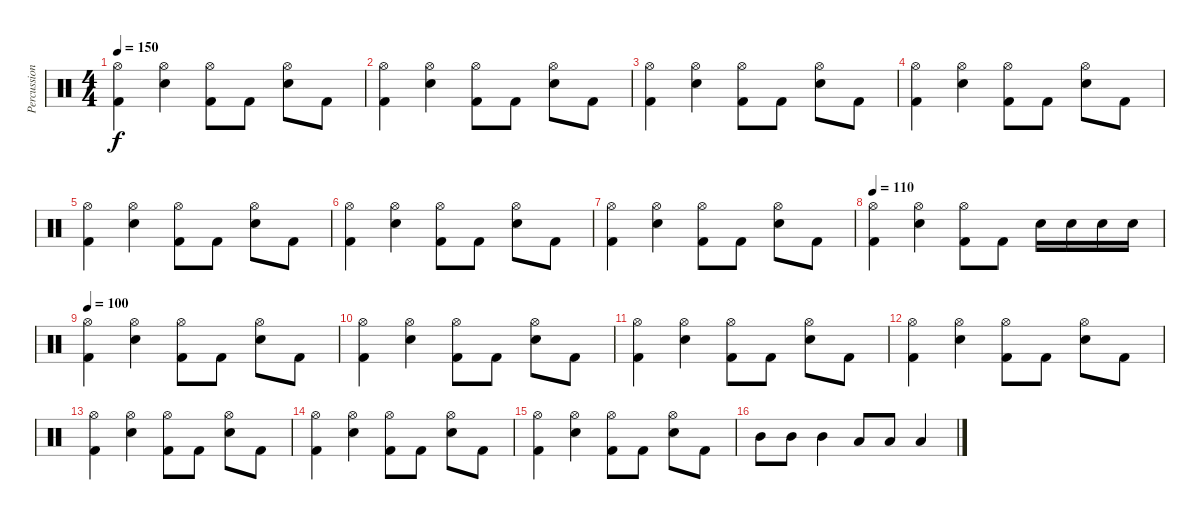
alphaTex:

\track ("Percussion" "Percussion") {instrument percussion}
\staff {score}
\articulation defaults
\ts (4 4)
\tempo 150
\clef neutral
\ks c
("Kick (hit) 2" "Hi-Hat (open)").4{dy f} ("Snare (hit) 2" "Hi-Hat (open)").4 ("Kick (hit) 2" "Hi-Hat (open)").8 "Kick (hit) 2".8 ("Snare (hit) 2" "Hi-Hat (open)").8 "Kick (hit) 2".8 |
("Kick (hit) 2" "Hi-Hat (open)").4 ("Snare (hit) 2" "Hi-Hat (open)").4 ("Kick (hit) 2" "Hi-Hat (open)").8 "Kick (hit) 2".8 ("Snare (hit) 2" "Hi-Hat (open)").8 "Kick (hit) 2".8 |
("Kick (hit) 2" "Hi-Hat (open)").4 ("Snare (hit) 2" "Hi-Hat (open)").4 ("Kick (hit) 2" "Hi-Hat (open)").8 "Kick (hit) 2".8 ("Snare (hit) 2" "Hi-Hat (open)").8 "Kick (hit) 2".8 |
("Kick (hit) 2" "Hi-Hat (open)").4 ("Snare (hit) 2" "Hi-Hat (open)").4 ("Kick (hit) 2" "Hi-Hat (open)").8 "Kick (hit) 2".8 ("Snare (hit) 2" "Hi-Hat (open)").8 "Kick (hit) 2".8 |
("Kick (hit) 2" "Hi-Hat (open)").4 ("Snare (hit) 2" "Hi-Hat (open)").4 ("Kick (hit) 2" "Hi-Hat (open)").8 "Kick (hit) 2".8 ("Snare (hit) 2" "Hi-Hat (open)").8 "Kick (hit) 2".8 |
("Kick (hit) 2" "Hi-Hat (open)").4 ("Snare (hit) 2" "Hi-Hat (open)").4 ("Kick (hit) 2" "Hi-Hat (open)").8 "Kick (hit) 2".8 ("Snare (hit) 2" "Hi-Hat (open)").8 "Kick (hit) 2".8 |
("Kick (hit) 2" "Hi-Hat (open)").4 ("Snare (hit) 2" "Hi-Hat (open)").4 ("Kick (hit) 2" "Hi-Hat (open)").8 "Kick (hit) 2".8 ("Snare (hit) 2" "Hi-Hat (open)").8 "Kick (hit) 2".8 |
\tempo 110
("Kick (hit) 2" "Hi-Hat (open)").4 ("Snare (hit) 2" "Hi-Hat (open)").4 ("Kick (hit) 2" "Hi-Hat (open)").8 "Kick (hit) 2".8 "Snare (hit) 2".16 "Snare (hit) 2".16 "Snare (hit) 2".16 "Snare (hit) 2".16 |
\tempo 100
("Kick (hit) 2" "Hi-Hat (open)").4 ("Snare (hit) 2" "Hi-Hat (open)").4 ("Kick (hit) 2" "Hi-Hat (open)").8 "Kick (hit) 2".8 ("Snare (hit) 2" "Hi-Hat (open)").8 "Kick (hit) 2".8 |
("Kick (hit) 2" "Hi-Hat (open)").4 ("Snare (hit) 2" "Hi-Hat (open)").4 ("Kick (hit) 2" "Hi-Hat (open)").8 "Kick (hit) 2".8 ("Snare (hit) 2" "Hi-Hat (open)").8 "Kick (hit) 2".8 |
("Kick (hit) 2" "Hi-Hat (open)").4 ("Snare (hit) 2" "Hi-Hat (open)").4 ("Kick (hit) 2" "Hi-Hat (open)").8 "Kick (hit) 2".8 ("Snare (hit) 2" "Hi-Hat (open)").8 "Kick (hit) 2".8 |
("Kick (hit) 2" "Hi-Hat (open)").4 ("Snare (hit) 2" "Hi-Hat (open)").4 ("Kick (hit) 2" "Hi-Hat (open)").8 "Kick (hit) 2".8 ("Snare (hit) 2" "Hi-Hat (open)").8 "Kick (hit) 2".8 |
("Kick (hit) 2" "Hi-Hat (open)").4 ("Snare (hit) 2" "Hi-Hat (open)").4 ("Kick (hit) 2" "Hi-Hat (open)").8 "Kick (hit) 2".8 ("Snare (hit) 2" "Hi-Hat (open)").8 "Kick (hit) 2".8 |
("Kick (hit) 2" "Hi-Hat (open)").4 ("Snare (hit) 2" "Hi-Hat (open)").4 ("Kick (hit) 2" "Hi-Hat (open)").8 "Kick (hit) 2".8 ("Snare (hit) 2" "Hi-Hat (open)").8 "Kick (hit) 2".8 |
("Kick (hit) 2" "Hi-Hat (open)").4 ("Snare (hit) 2" "Hi-Hat (open)").4 ("Kick (hit) 2" "Hi-Hat (open)").8 "Kick (hit) 2".8 ("Snare (hit) 2" "Hi-Hat (open)").8 "Kick (hit) 2".8 |
"Mid Tom (hit)".8 "Mid Tom (hit)".8 "Mid Tom (hit)".4 "Low Tom (hit)".8 "Low Tom (hit)".8 "Low Tom (hit)".4
